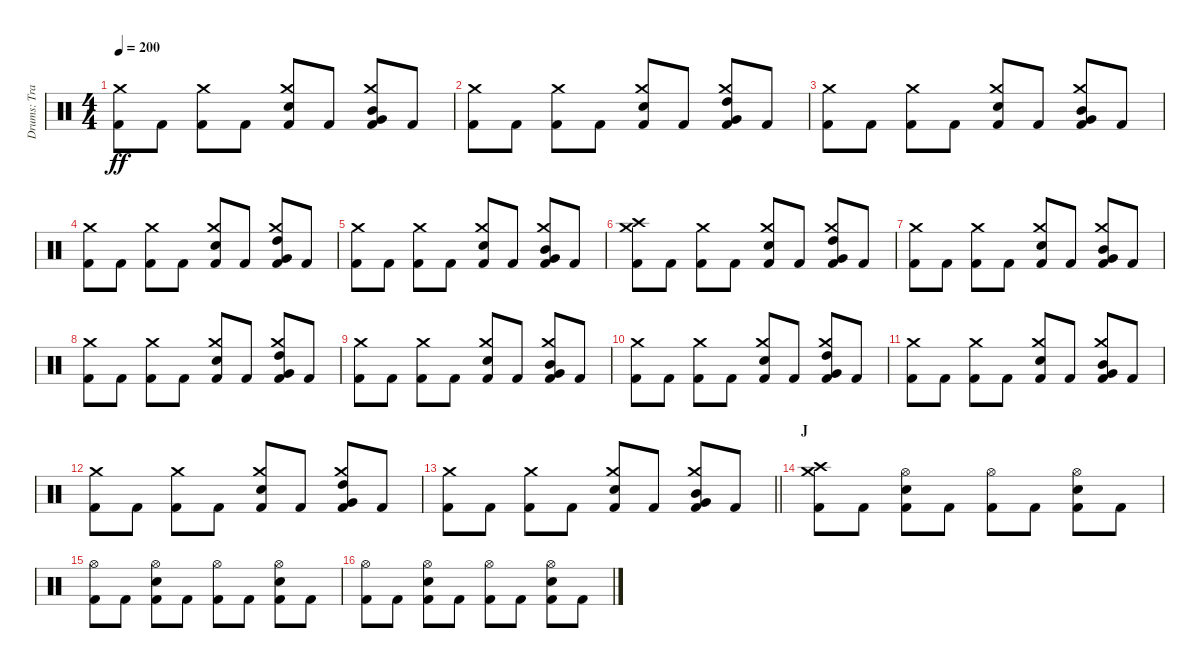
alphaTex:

\track ("Drums: Travis Clarke" "Drums: Tra") {instrument percussion}
\staff {score}
\articulation defaults
\ts (4 4)
\tempo 200
\clef neutral
\ks c
("Kick (hit) 2" "Crash medium (hit)").8{dy ff} "Kick (hit) 2".8 ("Kick (hit) 2" "Crash medium (hit)").8 "Kick (hit) 2".8 ("Kick (hit) 2" "Snare (hit) 2" "Crash medium (hit)").8 "Kick (hit) 2".8 ("Kick (hit) 2" "Very Low Tom (hit)" "Mid Tom (hit)" "Crash medium (hit)").8 "Kick (hit) 2".8 |
("Kick (hit) 2" "Crash medium (hit)").8 "Kick (hit) 2".8 ("Kick (hit) 2" "Crash medium (hit)").8 "Kick (hit) 2".8 ("Kick (hit) 2" "Snare (hit) 2" "Crash medium (hit)").8 "Kick (hit) 2".8 ("Kick (hit) 2" "Very Low Tom (hit)" "High Tom (hit)" "Crash medium (hit)").8 "Kick (hit) 2".8 |
("Kick (hit) 2" "Crash medium (hit)").8 "Kick (hit) 2".8 ("Kick (hit) 2" "Crash medium (hit)").8 "Kick (hit) 2".8 ("Kick (hit) 2" "Snare (hit) 2" "Crash medium (hit)").8 "Kick (hit) 2".8 ("Kick (hit) 2" "Very Low Tom (hit)" "Mid Tom (hit)" "Crash medium (hit)").8 "Kick (hit) 2".8 |
("Kick (hit) 2" "Crash medium (hit)").8 "Kick (hit) 2".8 ("Kick (hit) 2" "Crash medium (hit)").8 "Kick (hit) 2".8 ("Kick (hit) 2" "Snare (hit) 2" "Crash medium (hit)").8 "Kick (hit) 2".8 ("Kick (hit) 2" "Very Low Tom (hit)" "High Tom (hit)" "Crash medium (hit)").8 "Kick (hit) 2".8 |
("Kick (hit) 2" "Crash medium (hit)").8 "Kick (hit) 2".8 ("Kick (hit) 2" "Crash medium (hit)").8 "Kick (hit) 2".8 ("Kick (hit) 2" "Snare (hit) 2" "Crash medium (hit)").8 "Kick (hit) 2".8 ("Kick (hit) 2" "Very Low Tom (hit)" "Mid Tom (hit)" "Crash medium (hit)").8 "Kick (hit) 2".8 |
("Kick (hit) 2" "Crash high (hit)" "Crash medium (hit)").8 "Kick (hit) 2".8 ("Kick (hit) 2" "Crash medium (hit)").8 "Kick (hit) 2".8 ("Kick (hit) 2" "Snare (hit) 2" "Crash medium (hit)").8 "Kick (hit) 2".8 ("Kick (hit) 2" "Very Low Tom (hit)" "High Tom (hit)" "Crash medium (hit)").8 "Kick (hit) 2".8 |
("Kick (hit) 2" "Crash medium (hit)").8 "Kick (hit) 2".8 ("Kick (hit) 2" "Crash medium (hit)").8 "Kick (hit) 2".8 ("Kick (hit) 2" "Snare (hit) 2" "Crash medium (hit)").8 "Kick (hit) 2".8 ("Kick (hit) 2" "Very Low Tom (hit)" "Mid Tom (hit)" "Crash medium (hit)").8 "Kick (hit) 2".8 |
("Kick (hit) 2" "Crash medium (hit)").8 "Kick (hit) 2".8 ("Kick (hit) 2" "Crash medium (hit)").8 "Kick (hit) 2".8 ("Kick (hit) 2" "Snare (hit) 2" "Crash medium (hit)").8 "Kick (hit) 2".8 ("Kick (hit) 2" "Very Low Tom (hit)" "High Tom (hit)" "Crash medium (hit)").8 "Kick (hit) 2".8 |
("Kick (hit) 2" "Crash medium (hit)").8 "Kick (hit) 2".8 ("Kick (hit) 2" "Crash medium (hit)").8 "Kick (hit) 2".8 ("Kick (hit) 2" "Snare (hit) 2" "Crash medium (hit)").8 "Kick (hit) 2".8 ("Kick (hit) 2" "Very Low Tom (hit)" "Mid Tom (hit)" "Crash medium (hit)").8 "Kick (hit) 2".8 |
("Kick (hit) 2" "Crash medium (hit)").8 "Kick (hit) 2".8 ("Kick (hit) 2" "Crash medium (hit)").8 "Kick (hit) 2".8 ("Kick (hit) 2" "Snare (hit) 2" "Crash medium (hit)").8 "Kick (hit) 2".8 ("Kick (hit) 2" "Very Low Tom (hit)" "High Tom (hit)" "Crash medium (hit)").8 "Kick (hit) 2".8 |
("Kick (hit) 2" "Crash medium (hit)").8 "Kick (hit) 2".8 ("Kick (hit) 2" "Crash medium (hit)").8 "Kick (hit) 2".8 ("Kick (hit) 2" "Snare (hit) 2" "Crash medium (hit)").8 "Kick (hit) 2".8 ("Kick (hit) 2" "Very Low Tom (hit)" "Mid Tom (hit)" "Crash medium (hit)").8 "Kick (hit) 2".8 |
("Kick (hit) 2" "Crash medium (hit)").8 "Kick (hit) 2".8 ("Kick (hit) 2" "Crash medium (hit)").8 "Kick (hit) 2".8 ("Kick (hit) 2" "Snare (hit) 2" "Crash medium (hit)").8 "Kick (hit) 2".8 ("Kick (hit) 2" "Very Low Tom (hit)" "High Tom (hit)" "Crash medium (hit)").8 "Kick (hit) 2".8 |
\barLineRight lightlight
("Kick (hit) 2" "Crash medium (hit)").8 "Kick (hit) 2".8 ("Kick (hit) 2" "Crash medium (hit)").8 "Kick (hit) 2".8 ("Kick (hit) 2" "Snare (hit) 2" "Crash medium (hit)").8 "Kick (hit) 2".8 ("Kick (hit) 2" "Very Low Tom (hit)" "Mid Tom (hit)" "Crash medium (hit)").8 "Kick (hit) 2".8 |
\section ("" "J")
("Kick (hit) 2" "Crash high (hit)" "Crash medium (hit)").8 "Kick (hit) 2".8 ("Kick (hit) 2" "Snare (hit) 2" "Hi-Hat (open)").8 "Kick (hit) 2".8 ("Kick (hit) 2" "Hi-Hat (open)").8 "Kick (hit) 2".8 ("Kick (hit) 2" "Snare (hit) 2" "Hi-Hat (open)").8 "Kick (hit) 2".8 |
("Kick (hit) 2" "Hi-Hat (open)").8 "Kick (hit) 2".8 ("Kick (hit) 2" "Snare (hit) 2" "Hi-Hat (open)").8 "Kick (hit) 2".8 ("Kick (hit) 2" "Hi-Hat (open)").8 "Kick (hit) 2".8 ("Kick (hit) 2" "Snare (hit) 2" "Hi-Hat (open)").8 "Kick (hit) 2".8 |
("Kick (hit) 2" "Hi-Hat (open)").8 "Kick (hit) 2".8 ("Kick (hit) 2" "Snare (hit) 2" "Hi-Hat (open)").8 "Kick (hit) 2".8 ("Kick (hit) 2" "Hi-Hat (open)").8 "Kick (hit) 2".8 ("Kick (hit) 2" "Snare (hit) 2" "Hi-Hat (open)").8 "Kick (hit) 2".8
